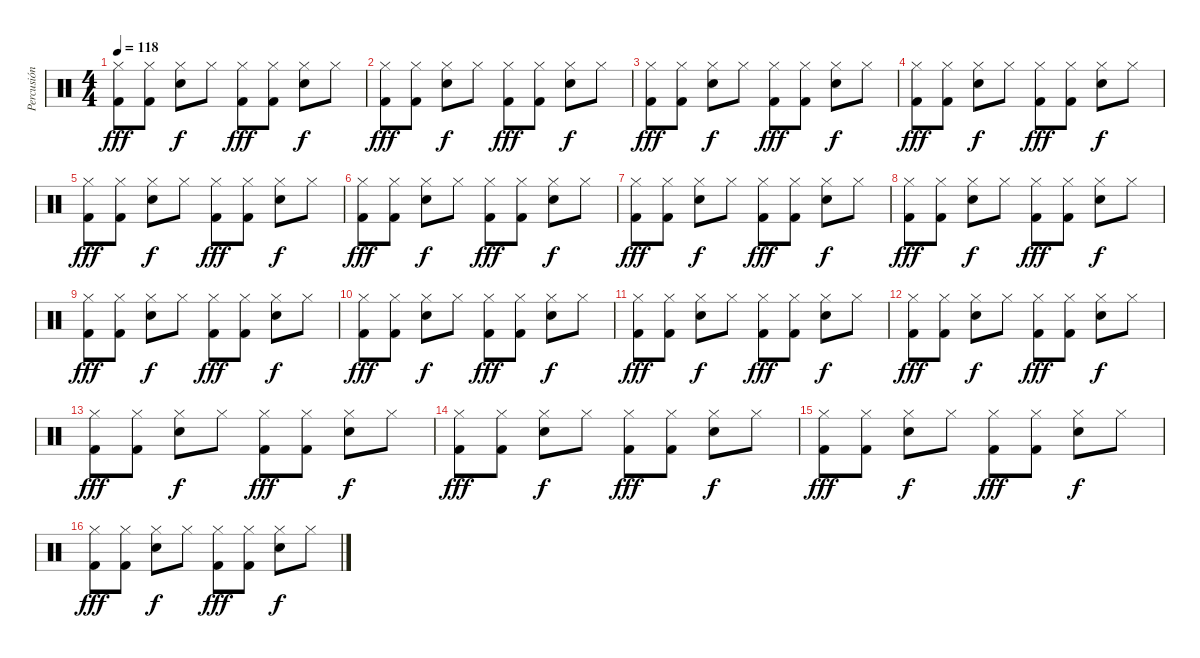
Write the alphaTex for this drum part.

\track ("Percusión" "Percusión") {instrument percussion}
\staff {score}
\articulation defaults
\ts (4 4)
\tempo 118
\clef neutral
\ks c
("Hi-Hat (closed)" "Kick (hit) 2").8{dy fff} ("Hi-Hat (closed)" "Kick (hit) 2").8 ("Hi-Hat (closed)" "Snare (hit) 2").8{dy f} "Hi-Hat (closed)".8 ("Hi-Hat (closed)" "Kick (hit) 2").8{dy fff} ("Hi-Hat (closed)" "Kick (hit) 2").8 ("Hi-Hat (closed)" "Snare (hit) 2").8{dy f} "Hi-Hat (closed)".8 |
("Hi-Hat (closed)" "Kick (hit) 2").8{dy fff} ("Hi-Hat (closed)" "Kick (hit) 2").8 ("Hi-Hat (closed)" "Snare (hit) 2").8{dy f} "Hi-Hat (closed)".8 ("Hi-Hat (closed)" "Kick (hit) 2").8{dy fff} ("Hi-Hat (closed)" "Kick (hit) 2").8 ("Hi-Hat (closed)" "Snare (hit) 2").8{dy f} "Hi-Hat (closed)".8 |
("Hi-Hat (closed)" "Kick (hit) 2").8{dy fff} ("Hi-Hat (closed)" "Kick (hit) 2").8 ("Hi-Hat (closed)" "Snare (hit) 2").8{dy f} "Hi-Hat (closed)".8 ("Hi-Hat (closed)" "Kick (hit) 2").8{dy fff} ("Hi-Hat (closed)" "Kick (hit) 2").8 ("Hi-Hat (closed)" "Snare (hit) 2").8{dy f} "Hi-Hat (closed)".8 |
("Hi-Hat (closed)" "Kick (hit) 2").8{dy fff} ("Hi-Hat (closed)" "Kick (hit) 2").8 ("Hi-Hat (closed)" "Snare (hit) 2").8{dy f} "Hi-Hat (closed)".8 ("Hi-Hat (closed)" "Kick (hit) 2").8{dy fff} ("Hi-Hat (closed)" "Kick (hit) 2").8 ("Hi-Hat (closed)" "Snare (hit) 2").8{dy f} "Hi-Hat (closed)".8 |
("Hi-Hat (closed)" "Kick (hit) 2").8{dy fff} ("Hi-Hat (closed)" "Kick (hit) 2").8 ("Hi-Hat (closed)" "Snare (hit) 2").8{dy f} "Hi-Hat (closed)".8 ("Hi-Hat (closed)" "Kick (hit) 2").8{dy fff} ("Hi-Hat (closed)" "Kick (hit) 2").8 ("Hi-Hat (closed)" "Snare (hit) 2").8{dy f} "Hi-Hat (closed)".8 |
("Hi-Hat (closed)" "Kick (hit) 2").8{dy fff} ("Hi-Hat (closed)" "Kick (hit) 2").8 ("Hi-Hat (closed)" "Snare (hit) 2").8{dy f} "Hi-Hat (closed)".8 ("Hi-Hat (closed)" "Kick (hit) 2").8{dy fff} ("Hi-Hat (closed)" "Kick (hit) 2").8 ("Hi-Hat (closed)" "Snare (hit) 2").8{dy f} "Hi-Hat (closed)".8 |
("Hi-Hat (closed)" "Kick (hit) 2").8{dy fff} ("Hi-Hat (closed)" "Kick (hit) 2").8 ("Hi-Hat (closed)" "Snare (hit) 2").8{dy f} "Hi-Hat (closed)".8 ("Hi-Hat (closed)" "Kick (hit) 2").8{dy fff} ("Hi-Hat (closed)" "Kick (hit) 2").8 ("Hi-Hat (closed)" "Snare (hit) 2").8{dy f} "Hi-Hat (closed)".8 |
("Hi-Hat (closed)" "Kick (hit) 2").8{dy fff} ("Hi-Hat (closed)" "Kick (hit) 2").8 ("Hi-Hat (closed)" "Snare (hit) 2").8{dy f} "Hi-Hat (closed)".8 ("Hi-Hat (closed)" "Kick (hit) 2").8{dy fff} ("Hi-Hat (closed)" "Kick (hit) 2").8 ("Hi-Hat (closed)" "Snare (hit) 2").8{dy f} "Hi-Hat (closed)".8 |
("Hi-Hat (closed)" "Kick (hit) 2").8{dy fff} ("Hi-Hat (closed)" "Kick (hit) 2").8 ("Hi-Hat (closed)" "Snare (hit) 2").8{dy f} "Hi-Hat (closed)".8 ("Hi-Hat (closed)" "Kick (hit) 2").8{dy fff} ("Hi-Hat (closed)" "Kick (hit) 2").8 ("Hi-Hat (closed)" "Snare (hit) 2").8{dy f} "Hi-Hat (closed)".8 |
("Hi-Hat (closed)" "Kick (hit) 2").8{dy fff} ("Hi-Hat (closed)" "Kick (hit) 2").8 ("Hi-Hat (closed)" "Snare (hit) 2").8{dy f} "Hi-Hat (closed)".8 ("Hi-Hat (closed)" "Kick (hit) 2").8{dy fff} ("Hi-Hat (closed)" "Kick (hit) 2").8 ("Hi-Hat (closed)" "Snare (hit) 2").8{dy f} "Hi-Hat (closed)".8 |
("Hi-Hat (closed)" "Kick (hit) 2").8{dy fff} ("Hi-Hat (closed)" "Kick (hit) 2").8 ("Hi-Hat (closed)" "Snare (hit) 2").8{dy f} "Hi-Hat (closed)".8 ("Hi-Hat (closed)" "Kick (hit) 2").8{dy fff} ("Hi-Hat (closed)" "Kick (hit) 2").8 ("Hi-Hat (closed)" "Snare (hit) 2").8{dy f} "Hi-Hat (closed)".8 |
("Hi-Hat (closed)" "Kick (hit) 2").8{dy fff} ("Hi-Hat (closed)" "Kick (hit) 2").8 ("Hi-Hat (closed)" "Snare (hit) 2").8{dy f} "Hi-Hat (closed)".8 ("Hi-Hat (closed)" "Kick (hit) 2").8{dy fff} ("Hi-Hat (closed)" "Kick (hit) 2").8 ("Hi-Hat (closed)" "Snare (hit) 2").8{dy f} "Hi-Hat (closed)".8 |
("Hi-Hat (closed)" "Kick (hit) 2").8{dy fff} ("Hi-Hat (closed)" "Kick (hit) 2").8 ("Hi-Hat (closed)" "Snare (hit) 2").8{dy f} "Hi-Hat (closed)".8 ("Hi-Hat (closed)" "Kick (hit) 2").8{dy fff} ("Hi-Hat (closed)" "Kick (hit) 2").8 ("Hi-Hat (closed)" "Snare (hit) 2").8{dy f} "Hi-Hat (closed)".8 |
("Hi-Hat (closed)" "Kick (hit) 2").8{dy fff} ("Hi-Hat (closed)" "Kick (hit) 2").8 ("Hi-Hat (closed)" "Snare (hit) 2").8{dy f} "Hi-Hat (closed)".8 ("Hi-Hat (closed)" "Kick (hit) 2").8{dy fff} ("Hi-Hat (closed)" "Kick (hit) 2").8 ("Hi-Hat (closed)" "Snare (hit) 2").8{dy f} "Hi-Hat (closed)".8 |
("Hi-Hat (closed)" "Kick (hit) 2").8{dy fff} ("Hi-Hat (closed)" "Kick (hit) 2").8 ("Hi-Hat (closed)" "Snare (hit) 2").8{dy f} "Hi-Hat (closed)".8 ("Hi-Hat (closed)" "Kick (hit) 2").8{dy fff} ("Hi-Hat (closed)" "Kick (hit) 2").8 ("Hi-Hat (closed)" "Snare (hit) 2").8{dy f} "Hi-Hat (closed)".8 |
("Hi-Hat (closed)" "Kick (hit) 2").8{dy fff} ("Hi-Hat (closed)" "Kick (hit) 2").8 ("Hi-Hat (closed)" "Snare (hit) 2").8{dy f} "Hi-Hat (closed)".8 ("Hi-Hat (closed)" "Kick (hit) 2").8{dy fff} ("Hi-Hat (closed)" "Kick (hit) 2").8 ("Hi-Hat (closed)" "Snare (hit) 2").8{dy f} "Hi-Hat (closed)".8
